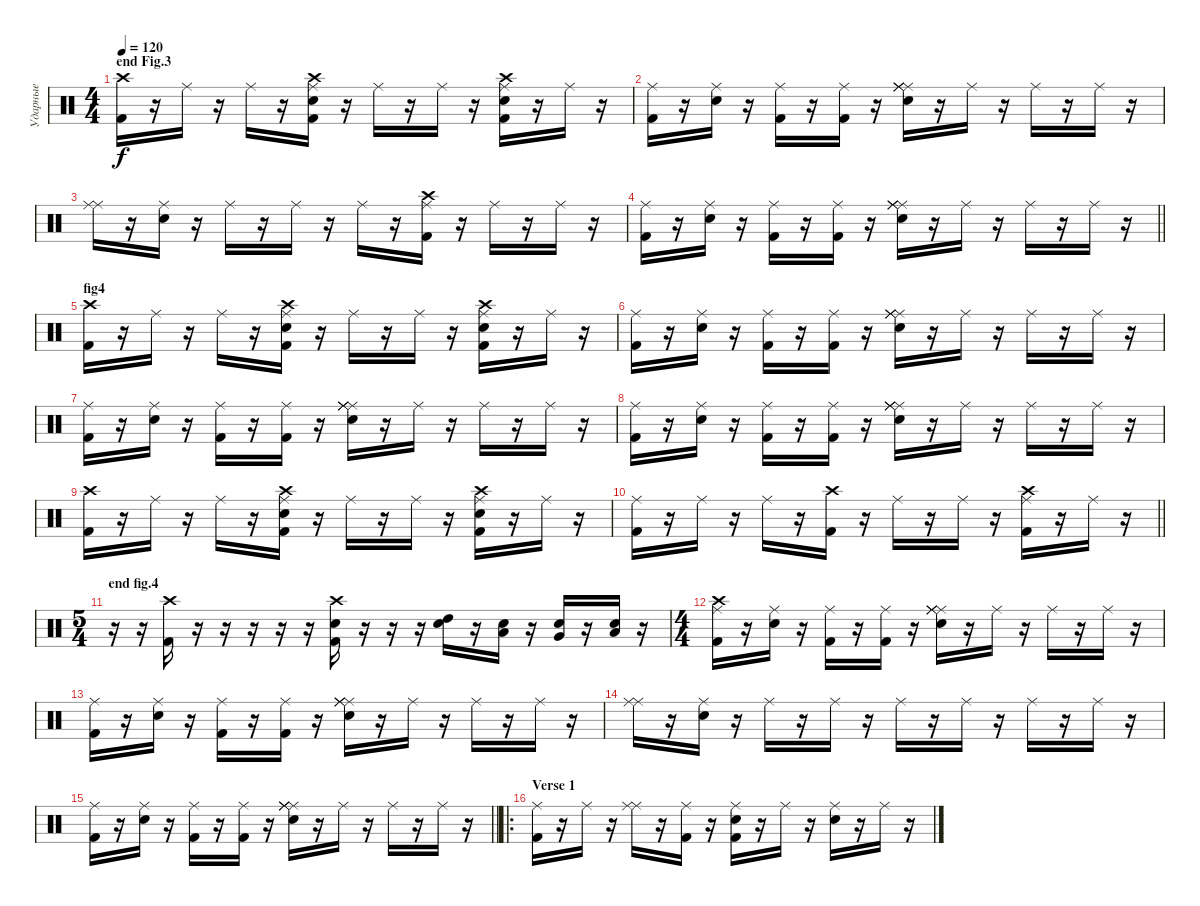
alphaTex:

\track ("Ударные" "Ударные") {instrument percussion}
\staff {score}
\articulation defaults
\ts (4 4)
\section ("" "end Fig.3")
\tempo 120
\clef neutral
\ks c
("Crash high (hit)" "Kick (hit) 2").16{dy f} r.16 "Ride (middle)".16 r.16 "Ride (middle)".16 r.16 ("Crash high (hit)" "Snare (hit) 2" "Kick (hit) 2" "Ride (middle)").16 r.16 "Ride (middle)".16 r.16 "Ride (middle)".16 r.16 ("Crash high (hit)" "Kick (hit) 2" "Snare (hit) 2" "Ride (middle)").16 r.16 "Ride (middle)".16 r.16 |
("Ride (middle)" "Kick (hit) 2").16 r.16 ("Ride (middle)" "Snare (hit) 2").16 r.16 ("Ride (middle)" "Kick (hit) 2").16 r.16 ("Ride (middle)" "Kick (hit) 2").16 r.16 ("Ride (middle)" "Ride (middle)" "Ride (middle)" "Ride (middle)" "Snare (hit) 2").16 r.16 "Ride (middle)".16 r.16 "Ride (middle)".16 r.16 "Ride (middle)".16 r.16 |
("Ride (middle)" "Ride (middle)").16 r.16 ("Ride (middle)" "Snare (hit) 2").16 r.16 "Ride (middle)".16 r.16 "Ride (middle)".16 r.16 "Ride (middle)".16 r.16 ("Ride (middle)" "Kick (hit) 2" "Crash high (hit)").16 r.16 "Ride (middle)".16 r.16 "Ride (middle)".16 r.16 |
\barLineRight lightlight
("Ride (middle)" "Kick (hit) 2").16 r.16 ("Ride (middle)" "Snare (hit) 2").16 r.16 ("Ride (middle)" "Kick (hit) 2").16 r.16 ("Ride (middle)" "Kick (hit) 2").16 r.16 ("Ride (middle)" "Ride (middle)" "Ride (middle)" "Ride (middle)" "Snare (hit) 2").16 r.16 "Ride (middle)".16 r.16 "Ride (middle)".16 r.16 "Ride (middle)".16 r.16 |
\section ("" "fig4")
("Crash high (hit)" "Kick (hit) 2").16 r.16 "Ride (middle)".16 r.16 "Ride (middle)".16 r.16 ("Crash high (hit)" "Snare (hit) 2" "Kick (hit) 2" "Ride (middle)").16 r.16 "Ride (middle)".16 r.16 "Ride (middle)".16 r.16 ("Crash high (hit)" "Kick (hit) 2" "Snare (hit) 2" "Ride (middle)").16 r.16 "Ride (middle)".16 r.16 |
("Ride (middle)" "Kick (hit) 2").16 r.16 ("Ride (middle)" "Snare (hit) 2").16 r.16 ("Ride (middle)" "Kick (hit) 2").16 r.16 ("Ride (middle)" "Kick (hit) 2").16 r.16 ("Ride (middle)" "Ride (middle)" "Ride (middle)" "Ride (middle)" "Snare (hit) 2").16 r.16 "Ride (middle)".16 r.16 "Ride (middle)".16 r.16 "Ride (middle)".16 r.16 |
("Ride (middle)" "Kick (hit) 2").16 r.16 ("Ride (middle)" "Snare (hit) 2").16 r.16 ("Ride (middle)" "Kick (hit) 2").16 r.16 ("Ride (middle)" "Kick (hit) 2").16 r.16 ("Ride (middle)" "Ride (middle)" "Ride (middle)" "Ride (middle)" "Snare (hit) 2").16 r.16 "Ride (middle)".16 r.16 "Ride (middle)".16 r.16 "Ride (middle)".16 r.16 |
("Ride (middle)" "Kick (hit) 2").16 r.16 ("Ride (middle)" "Snare (hit) 2").16 r.16 ("Ride (middle)" "Kick (hit) 2").16 r.16 ("Ride (middle)" "Kick (hit) 2").16 r.16 ("Ride (middle)" "Ride (middle)" "Ride (middle)" "Ride (middle)" "Snare (hit) 2").16 r.16 "Ride (middle)".16 r.16 "Ride (middle)".16 r.16 "Ride (middle)".16 r.16 |
("Crash high (hit)" "Kick (hit) 2").16 r.16 "Ride (middle)".16 r.16 "Ride (middle)".16 r.16 ("Crash high (hit)" "Snare (hit) 2" "Kick (hit) 2" "Ride (middle)").16 r.16 "Ride (middle)".16 r.16 "Ride (middle)".16 r.16 ("Crash high (hit)" "Kick (hit) 2" "Snare (hit) 2" "Ride (middle)").16 r.16 "Ride (middle)".16 r.16 |
\barLineRight lightlight
("Ride (middle)" "Kick (hit) 2").16 r.16 "Ride (middle)".16 r.16 "Ride (middle)".16 r.16 ("Kick (hit) 2" "Crash high (hit)").16 r.16 "Ride (middle)".16 r.16 "Ride (middle)".16 r.16 ("Ride (middle)" "Kick (hit) 2" "Crash high (hit)").16 r.16 "Ride (middle)".16 r.16 |
\ts (5 4)
\section ("" "end fig.4")
r.16 r.16 ("Crash high (hit)" "Kick (hit) 2").16 r.16 r.16 r.16 r.16 r.16 ("Crash high (hit)" "Kick (hit) 2" "Snare (hit) 2").16 r.16 r.16 r.16 ("Snare (hit) 2" "High Tom (hit)").16 r.16 ("Snare (hit) 2" "Low Tom (hit)").16 r.16 ("Snare (hit) 2" "Very Low Tom (hit)").16 r.16 ("Snare (hit) 2" "Low Floor Tom (hit)").16 r.16 |
\ts (4 4)
("Ride (middle)" "Kick (hit) 2" "Crash high (hit)").16 r.16 ("Ride (middle)" "Snare (hit) 2").16 r.16 ("Ride (middle)" "Kick (hit) 2").16 r.16 ("Ride (middle)" "Kick (hit) 2").16 r.16 ("Ride (middle)" "Ride (middle)" "Ride (middle)" "Ride (middle)" "Snare (hit) 2").16 r.16 "Ride (middle)".16 r.16 "Ride (middle)".16 r.16 "Ride (middle)".16 r.16 |
("Ride (middle)" "Kick (hit) 2").16 r.16 ("Ride (middle)" "Snare (hit) 2").16 r.16 ("Ride (middle)" "Kick (hit) 2").16 r.16 ("Ride (middle)" "Kick (hit) 2").16 r.16 ("Ride (middle)" "Ride (middle)" "Ride (middle)" "Ride (middle)" "Snare (hit) 2").16 r.16 "Ride (middle)".16 r.16 "Ride (middle)".16 r.16 "Ride (middle)".16 r.16 |
("Ride (middle)" "Ride (middle)").16 r.16 ("Ride (middle)" "Snare (hit) 2").16 r.16 "Ride (middle)".16 r.16 "Ride (middle)".16 r.16 "Ride (middle)".16 r.16 "Ride (middle)".16 r.16 "Ride (middle)".16 r.16 "Ride (middle)".16 r.16 |
\barLineRight lightlight
("Ride (middle)" "Kick (hit) 2").16 r.16 ("Ride (middle)" "Snare (hit) 2").16 r.16 ("Ride (middle)" "Kick (hit) 2").16 r.16 ("Ride (middle)" "Kick (hit) 2").16 r.16 ("Ride (middle)" "Ride (middle)" "Ride (middle)" "Ride (middle)" "Snare (hit) 2").16 r.16 "Ride (middle)".16 r.16 "Ride (middle)".16 r.16 "Ride (middle)".16 r.16 |
\ro
\section ("" "Verse 1")
("Ride (middle)" "Kick (hit) 2").16 r.16 "Ride (middle)".16 r.16 ("Ride (middle)" "Ride (middle)").16 r.16 ("Ride (middle)" "Kick (hit) 2").16 r.16 ("Ride (middle)" "Kick (hit) 2" "Snare (hit) 2").16 r.16 "Ride (middle)".16 r.16 ("Ride (middle)" "Snare (hit) 2").16 r.16 "Ride (middle)".16 r.16
